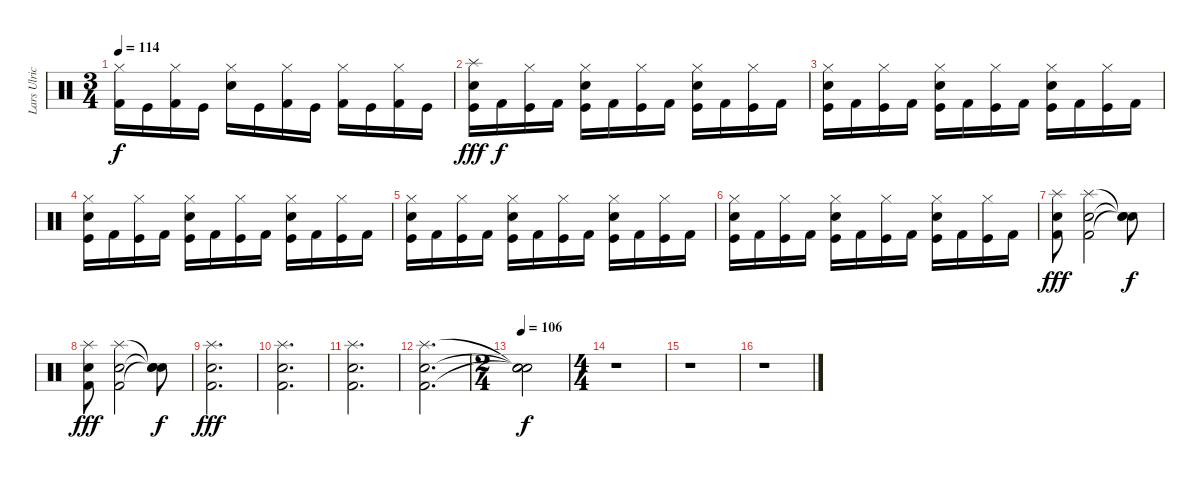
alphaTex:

\track ("Lars Ulrich" "Lars Ulric") {instrument percussion}
\staff {score}
\articulation defaults
\ts (3 4)
\tempo 114
\clef neutral
\ks c
("Hi-Hat (closed)" "Kick (hit) 2").16{dy f} "Kick (hit)".16 ("Hi-Hat (closed)" "Kick (hit) 2").16 "Kick (hit)".16 ("Hi-Hat (closed)" "Electric Snare (hit)").16 "Kick (hit)".16 ("Hi-Hat (closed)" "Kick (hit) 2").16 "Kick (hit)".16 ("Hi-Hat (closed)" "Kick (hit) 2").16 "Kick (hit)".16 ("Hi-Hat (closed)" "Kick (hit) 2").16 "Kick (hit)".16 |
("Splash (hit)" "Electric Snare (hit)" "Kick (hit)").16{dy fff} "Kick (hit) 2".16{dy f} ("Hi-Hat (closed)" "Kick (hit)").16 "Kick (hit) 2".16 ("Hi-Hat (closed)" "Electric Snare (hit)" "Kick (hit)").16 "Kick (hit) 2".16 ("Hi-Hat (closed)" "Kick (hit)").16 "Kick (hit) 2".16 ("Hi-Hat (closed)" "Electric Snare (hit)" "Kick (hit)").16 "Kick (hit) 2".16 ("Hi-Hat (closed)" "Kick (hit)").16 "Kick (hit) 2".16 |
("Hi-Hat (closed)" "Electric Snare (hit)" "Kick (hit)").16 "Kick (hit) 2".16 ("Hi-Hat (closed)" "Kick (hit)").16 "Kick (hit) 2".16 ("Hi-Hat (closed)" "Electric Snare (hit)" "Kick (hit)").16 "Kick (hit) 2".16 ("Hi-Hat (closed)" "Kick (hit)").16 "Kick (hit) 2".16 ("Hi-Hat (closed)" "Electric Snare (hit)" "Kick (hit)").16 "Kick (hit) 2".16 ("Hi-Hat (closed)" "Kick (hit)").16 "Kick (hit) 2".16 |
("Hi-Hat (closed)" "Electric Snare (hit)" "Kick (hit)").16 "Kick (hit) 2".16 ("Hi-Hat (closed)" "Kick (hit)").16 "Kick (hit) 2".16 ("Hi-Hat (closed)" "Electric Snare (hit)" "Kick (hit)").16 "Kick (hit) 2".16 ("Hi-Hat (closed)" "Kick (hit)").16 "Kick (hit) 2".16 ("Hi-Hat (closed)" "Electric Snare (hit)" "Kick (hit)").16 "Kick (hit) 2".16 ("Hi-Hat (closed)" "Kick (hit)").16 "Kick (hit) 2".16 |
("Hi-Hat (closed)" "Electric Snare (hit)" "Kick (hit)").16 "Kick (hit) 2".16 ("Hi-Hat (closed)" "Kick (hit)").16 "Kick (hit) 2".16 ("Hi-Hat (closed)" "Electric Snare (hit)" "Kick (hit)").16 "Kick (hit) 2".16 ("Hi-Hat (closed)" "Kick (hit)").16 "Kick (hit) 2".16 ("Hi-Hat (closed)" "Electric Snare (hit)" "Kick (hit)").16 "Kick (hit) 2".16 ("Hi-Hat (closed)" "Kick (hit)").16 "Kick (hit) 2".16 |
("Hi-Hat (closed)" "Electric Snare (hit)" "Kick (hit)").16 "Kick (hit) 2".16 ("Hi-Hat (closed)" "Kick (hit)").16 "Kick (hit) 2".16 ("Hi-Hat (closed)" "Electric Snare (hit)" "Kick (hit)").16 "Kick (hit) 2".16 ("Hi-Hat (closed)" "Kick (hit)").16 "Kick (hit) 2".16 ("Hi-Hat (closed)" "Electric Snare (hit)" "Kick (hit)").16 "Kick (hit) 2".16 ("Hi-Hat (closed)" "Kick (hit)").16 "Kick (hit) 2".16 |
("Splash (hit)" "Electric Snare (hit)" "Kick (hit) 2").8{dy fff} ("Splash (hit)" "Electric Snare (hit)" "Kick (hit) 2").2 ("Snare (hit)"{t} "Snare (hit)"{t} "Snare (hit)"{t}).8{dy f} |
("Splash (hit)" "Electric Snare (hit)" "Kick (hit) 2").8{dy fff} ("Splash (hit)" "Electric Snare (hit)" "Kick (hit) 2").2 ("Snare (hit)"{t} "Snare (hit)"{t} "Snare (hit)"{t}).8{dy f} |
("Splash (hit)" "Electric Snare (hit)" "Kick (hit) 2").2{d dy fff} |
("Splash (hit)" "Electric Snare (hit)" "Kick (hit) 2").2{d} |
("Splash (hit)" "Electric Snare (hit)" "Kick (hit) 2").2{d} |
("Splash (hit)" "Electric Snare (hit)" "Kick (hit) 2").2{d} |
\ts (2 4)
\tempo 106
("Snare (hit)"{t} "Snare (hit)"{t} "Snare (hit)"{t}).2{dy f} |
\ts (4 4)
r.1 |
r.1 |
r.1
